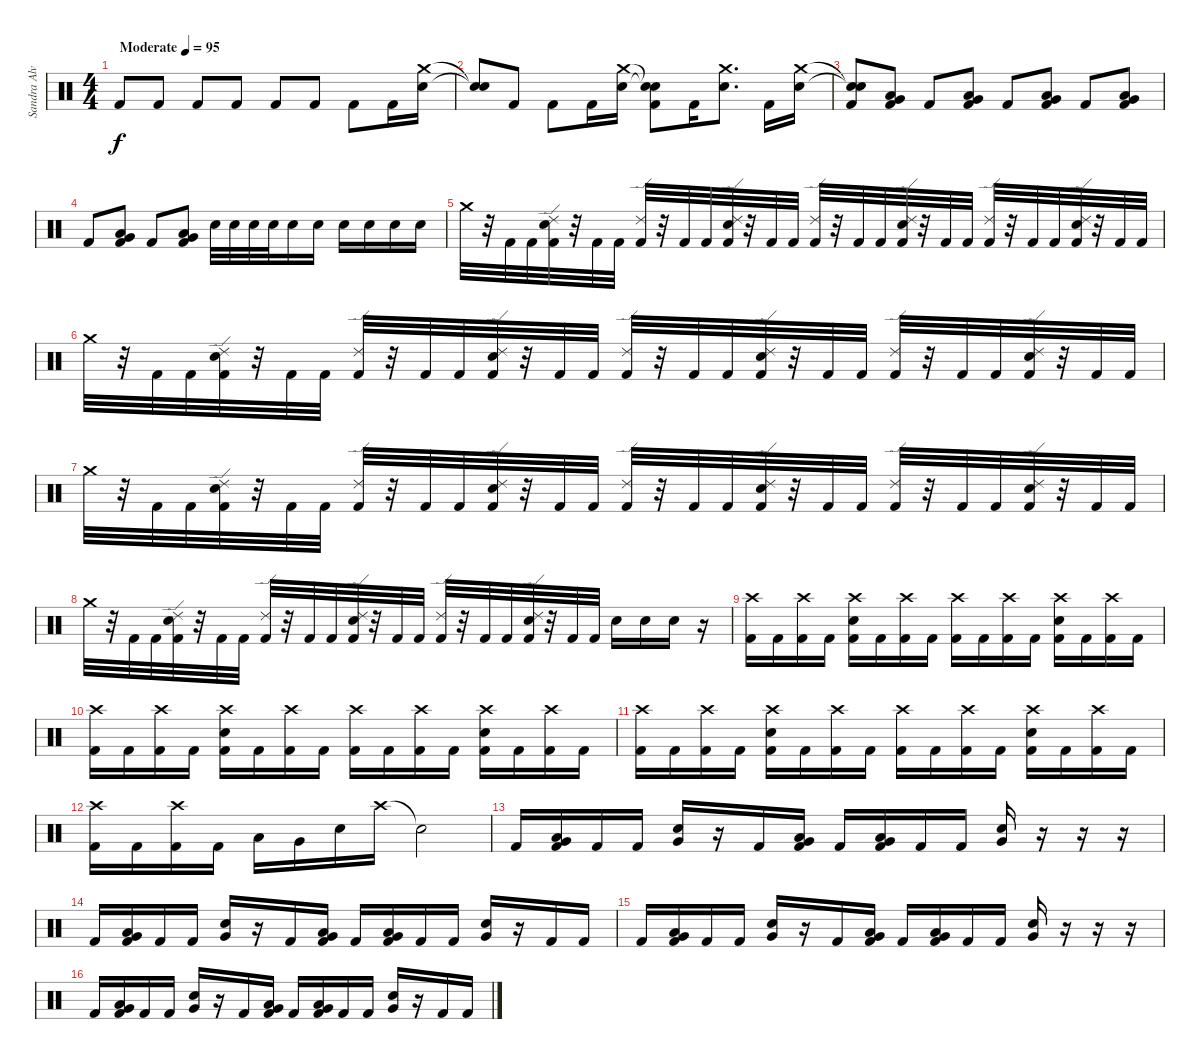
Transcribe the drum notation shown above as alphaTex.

\track ("Sandra Alvarenga" "Sandra Alv") {instrument percussion}
\staff
\articulation defaults
\ts (4 4)
\tempo (95 "Moderate")
\clef neutral
\ks c "Kick (hit) 2".8{dy f} "Kick (hit) 2".8 "Kick (hit) 2".8 "Kick (hit) 2".8 "Kick (hit) 2".8 "Kick (hit) 2".8 "Kick (hit) 2".8 "Kick (hit) 2".16
("Crash medium (hit)" "Electric Snare (hit)").16 |
("Snare (hit)"{t} "Snare (hit)"{t}).8 "Kick (hit) 2".8 "Kick (hit) 2".8 "Kick (hit) 2".16 ("Crash medium (hit)" "Electric Snare (hit)").16 ("Snare (hit)"{t} "Snare (hit)"{t} "Kick (hit) 2").8 "Kick (hit) 2".16 ("Crash medium (hit)" "Electric Snare (hit)").8{d} "Kick (hit) 2".16 ("Crash medium (hit)" "Electric Snare (hit)").16 |
("Snare (hit)"{t} "Snare (hit)"{t} "Kick (hit) 2").8 ("Low Floor Tom (hit)" "Very Low Tom (hit)" "Kick (hit) 2").8 "Kick (hit) 2".8 ("Low Floor Tom (hit)" "Very Low Tom (hit)" "Kick (hit) 2").8 "Kick (hit) 2".8 ("Low Floor Tom (hit)" "Very Low Tom (hit)" "Kick (hit) 2").8 "Kick (hit) 2".8 ("Low Floor Tom (hit)" "Very Low Tom (hit)" "Kick (hit) 2").8 |
"Kick (hit) 2".8 ("Low Floor Tom (hit)" "Very Low Tom (hit)" "Kick (hit) 2").8 "Kick (hit) 2".8 ("Low Floor Tom (hit)" "Very Low Tom (hit)" "Kick (hit) 2").8 "Electric Snare (hit)".32 "Electric Snare (hit)".32 "Electric Snare (hit)".32 "Electric Snare (hit)".32 "Electric Snare (hit)".16 "Electric Snare (hit)".16 "Electric Snare (hit)".16 "Electric Snare (hit)".16 "Electric Snare (hit)".16 "Electric Snare (hit)".16 |
"Crash medium (hit)".32 r.32 "Kick (hit) 2".32 "Kick (hit) 2".32 ("Ride (edge) 2" "Electric Snare (hit)" "Kick (hit) 2").32 r.32 "Kick (hit) 2".32 "Kick (hit) 2".32 ("Ride (edge) 2" "Kick (hit) 2").32 r.32 "Kick (hit) 2".32 "Kick (hit) 2".32 ("Ride (edge) 2" "Electric Snare (hit)" "Kick (hit) 2").32 r.32 "Kick (hit) 2".32 "Kick (hit) 2".32 ("Ride (edge) 2" "Kick (hit) 2").32 r.32 "Kick (hit) 2".32 "Kick (hit) 2".32 ("Ride (edge) 2" "Electric Snare (hit)" "Kick (hit) 2").32 r.32 "Kick (hit) 2".32 "Kick (hit) 2".32 ("Ride (edge) 2" "Kick (hit) 2").32 r.32 "Kick (hit) 2".32 "Kick (hit) 2".32 ("Ride (edge) 2" "Electric Snare (hit)" "Kick (hit) 2").32 r.32 "Kick (hit) 2".32 "Kick (hit) 2".32 |
"Crash medium (hit)".32 r.32 "Kick (hit) 2".32 "Kick (hit) 2".32 ("Ride (edge) 2" "Electric Snare (hit)" "Kick (hit) 2").32 r.32 "Kick (hit) 2".32 "Kick (hit) 2".32 ("Ride (edge) 2" "Kick (hit) 2").32 r.32 "Kick (hit) 2".32 "Kick (hit) 2".32 ("Ride (edge) 2" "Electric Snare (hit)" "Kick (hit) 2").32 r.32 "Kick (hit) 2".32 "Kick (hit) 2".32 ("Ride (edge) 2" "Kick (hit) 2").32 r.32 "Kick (hit) 2".32 "Kick (hit) 2".32 ("Ride (edge) 2" "Electric Snare (hit)" "Kick (hit) 2").32 r.32 "Kick (hit) 2".32 "Kick (hit) 2".32 ("Ride (edge) 2" "Kick (hit) 2").32 r.32 "Kick (hit) 2".32 "Kick (hit) 2".32 ("Ride (edge) 2" "Electric Snare (hit)" "Kick (hit) 2").32 r.32 "Kick (hit) 2".32 "Kick (hit) 2".32 |
"Crash medium (hit)".32 r.32 "Kick (hit) 2".32 "Kick (hit) 2".32 ("Ride (edge) 2" "Electric Snare (hit)" "Kick (hit) 2").32 r.32 "Kick (hit) 2".32 "Kick (hit) 2".32 ("Ride (edge) 2" "Kick (hit) 2").32 r.32 "Kick (hit) 2".32 "Kick (hit) 2".32 ("Ride (edge) 2" "Electric Snare (hit)" "Kick (hit) 2").32 r.32 "Kick (hit) 2".32 "Kick (hit) 2".32 ("Ride (edge) 2" "Kick (hit) 2").32 r.32 "Kick (hit) 2".32 "Kick (hit) 2".32 ("Ride (edge) 2" "Electric Snare (hit)" "Kick (hit) 2").32 r.32 "Kick (hit) 2".32 "Kick (hit) 2".32 ("Ride (edge) 2" "Kick (hit) 2").32 r.32 "Kick (hit) 2".32 "Kick (hit) 2".32 ("Ride (edge) 2" "Electric Snare (hit)" "Kick (hit) 2").32 r.32 "Kick (hit) 2".32 "Kick (hit) 2".32 |
"Crash medium (hit)".32 r.32 "Kick (hit) 2".32 "Kick (hit) 2".32 ("Ride (edge) 2" "Electric Snare (hit)" "Kick (hit) 2").32 r.32 "Kick (hit) 2".32 "Kick (hit) 2".32 ("Ride (edge) 2" "Kick (hit) 2").32 r.32 "Kick (hit) 2".32 "Kick (hit) 2".32 ("Ride (edge) 2" "Electric Snare (hit)" "Kick (hit) 2").32 r.32 "Kick (hit) 2".32 "Kick (hit) 2".32 ("Ride (edge) 2" "Kick (hit) 2").32 r.32 "Kick (hit) 2".32 "Kick (hit) 2".32 ("Ride (edge) 2" "Electric Snare (hit)" "Kick (hit) 2").32 r.32 "Kick (hit) 2".32 "Kick (hit) 2".32 "Electric Snare (hit)".16 "Electric Snare (hit)".16 "Electric Snare (hit)".16 r.16 |
("Crash high (hit)" "Kick (hit) 2").16 "Kick (hit) 2".16 ("Crash high (hit)" "Kick (hit) 2").16 "Kick (hit) 2".16 ("Crash high (hit)" "Electric Snare (hit)" "Kick (hit) 2").16 "Kick (hit) 2".16 ("Crash high (hit)" "Kick (hit) 2").16 "Kick (hit) 2".16 ("Crash high (hit)" "Kick (hit) 2").16 "Kick (hit) 2".16 ("Crash high (hit)" "Kick (hit) 2").16 "Kick (hit) 2".16 ("Crash high (hit)" "Electric Snare (hit)" "Kick (hit) 2").16 "Kick (hit) 2".16 ("Crash high (hit)" "Kick (hit) 2").16 "Kick (hit) 2".16 |
("Crash high (hit)" "Kick (hit) 2").16 "Kick (hit) 2".16 ("Crash high (hit)" "Kick (hit) 2").16 "Kick (hit) 2".16 ("Crash high (hit)" "Electric Snare (hit)" "Kick (hit) 2").16 "Kick (hit) 2".16 ("Crash high (hit)" "Kick (hit) 2").16 "Kick (hit) 2".16 ("Crash high (hit)" "Kick (hit) 2").16 "Kick (hit) 2".16 ("Crash high (hit)" "Kick (hit) 2").16 "Kick (hit) 2".16 ("Crash high (hit)" "Electric Snare (hit)" "Kick (hit) 2").16 "Kick (hit) 2".16 ("Crash high (hit)" "Kick (hit) 2").16 "Kick (hit) 2".16 |
("Crash high (hit)" "Kick (hit) 2").16 "Kick (hit) 2".16 ("Crash high (hit)" "Kick (hit) 2").16 "Kick (hit) 2".16 ("Crash high (hit)" "Electric Snare (hit)" "Kick (hit) 2").16 "Kick (hit) 2".16 ("Crash high (hit)" "Kick (hit) 2").16 "Kick (hit) 2".16 ("Crash high (hit)" "Kick (hit) 2").16 "Kick (hit) 2".16 ("Crash high (hit)" "Kick (hit) 2").16 "Kick (hit) 2".16 ("Crash high (hit)" "Electric Snare (hit)" "Kick (hit) 2").16 "Kick (hit) 2".16 ("Crash high (hit)" "Kick (hit) 2").16 "Kick (hit) 2".16 |
("Crash high (hit)" "Kick (hit) 2").16 "Kick (hit) 2".16 ("Crash high (hit)" "Kick (hit) 2").16 "Kick (hit) 2".16 "Low Tom (hit)".16 "Very Low Tom (hit)".16 "Electric Snare (hit)".16 "Crash high (hit)".16 "Snare (hit)"{t}.2 |
"Kick (hit) 2".16 ("Low Tom (hit)" "Very Low Tom (hit)" "Kick (hit) 2").16 "Kick (hit) 2".16 "Kick (hit) 2".16 ("Electric Snare (hit)" "Very Low Tom (hit)").16 r.16 "Kick (hit) 2".16 ("Low Tom (hit)" "Very Low Tom (hit)" "Kick (hit) 2").16 "Kick (hit) 2".16 ("Very Low Tom (hit)" "Low Floor Tom (hit)" "Kick (hit) 2").16 "Kick (hit) 2".16 "Kick (hit) 2".16 ("Electric Snare (hit)" "Very Low Tom (hit)").16 r.16 r.16 r.16 |
"Kick (hit) 2".16 ("Low Tom (hit)" "Very Low Tom (hit)" "Kick (hit) 2").16 "Kick (hit) 2".16 "Kick (hit) 2".16 ("Electric Snare (hit)" "Very Low Tom (hit)").16 r.16 "Kick (hit) 2".16 ("Low Tom (hit)" "Very Low Tom (hit)" "Kick (hit) 2").16 "Kick (hit) 2".16 ("Very Low Tom (hit)" "Low Floor Tom (hit)" "Kick (hit) 2").16 "Kick (hit) 2".16 "Kick (hit) 2".16 ("Electric Snare (hit)" "Very Low Tom (hit)").16 r.16 "Kick (hit) 2".16 "Kick (hit) 2".16 |
"Kick (hit) 2".16 ("Low Tom (hit)" "Very Low Tom (hit)" "Kick (hit) 2").16 "Kick (hit) 2".16 "Kick (hit) 2".16 ("Electric Snare (hit)" "Very Low Tom (hit)").16 r.16 "Kick (hit) 2".16 ("Low Tom (hit)" "Very Low Tom (hit)" "Kick (hit) 2").16 "Kick (hit) 2".16 ("Very Low Tom (hit)" "Low Floor Tom (hit)" "Kick (hit) 2").16 "Kick (hit) 2".16 "Kick (hit) 2".16 ("Electric Snare (hit)" "Very Low Tom (hit)").16 r.16 r.16 r.16 |
"Kick (hit) 2".16 ("Low Tom (hit)" "Very Low Tom (hit)" "Kick (hit) 2").16 "Kick (hit) 2".16 "Kick (hit) 2".16 ("Electric Snare (hit)" "Very Low Tom (hit)").16 r.16 "Kick (hit) 2".16 ("Low Tom (hit)" "Very Low Tom (hit)" "Kick (hit) 2").16 "Kick (hit) 2".16 ("Very Low Tom (hit)" "Low Floor Tom (hit)" "Kick (hit) 2").16 "Kick (hit) 2".16 "Kick (hit) 2".16 ("Electric Snare (hit)" "Very Low Tom (hit)").16 r.16 "Kick (hit) 2".16 "Kick (hit) 2".16
